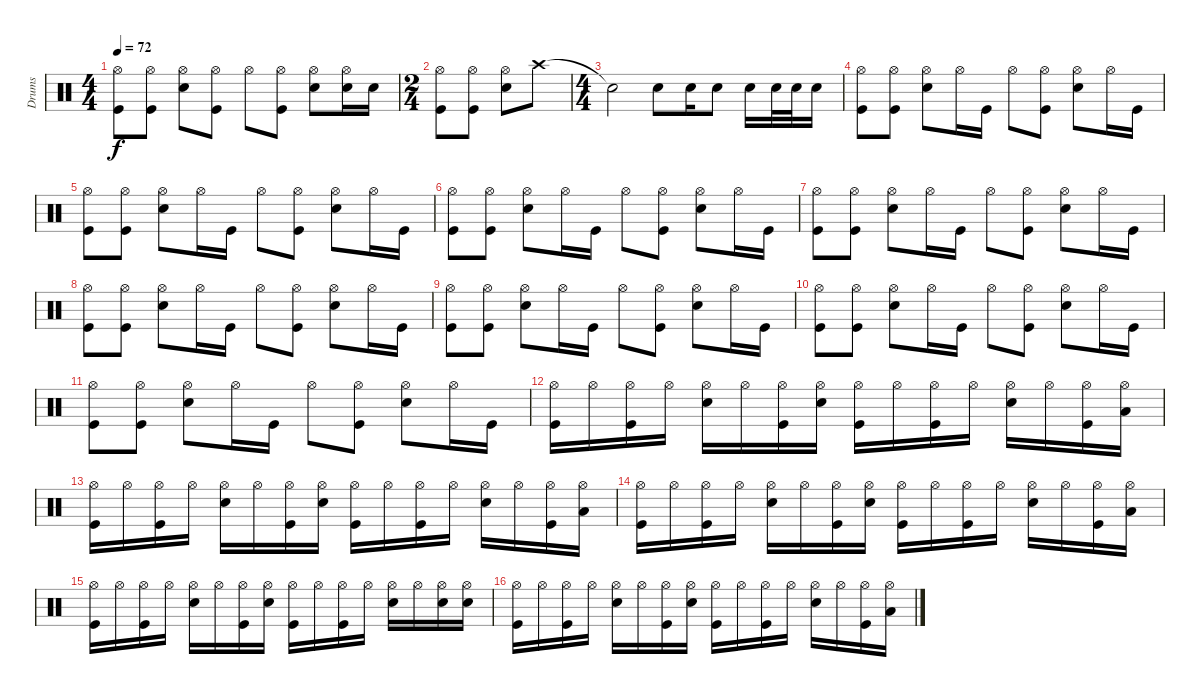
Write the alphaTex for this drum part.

\track ("Drums" "Drums") {instrument percussion}
\staff {score}
\articulation defaults
\ts (4 4)
\tempo 72
\clef neutral
\ks c
("Kick (hit)" "Hi-Hat (open)").8{dy f} ("Kick (hit)" "Hi-Hat (open)").8 ("Snare (hit) 2" "Hi-Hat (open)").8 ("Kick (hit)" "Hi-Hat (open)").8 "Hi-Hat (open)".8 ("Kick (hit)" "Hi-Hat (open)").8 ("Hi-Hat (open)" "Snare (hit) 2").8 ("Hi-Hat (open)" "Snare (hit) 2").16 "Snare (hit) 2".16 |
\ts (2 4)
("Kick (hit)" "Hi-Hat (open)").8 ("Kick (hit)" "Hi-Hat (open)").8 ("Snare (hit) 2" "Hi-Hat (open)").8 "Crash high (hit)".8 |
\ts (4 4)
"Snare (hit)"{t}.2 "Snare (hit) 2".8 "Snare (hit) 2".16 "Snare (hit) 2".8 "Snare (hit) 2".16 "Snare (hit) 2".32 "Snare (hit) 2".32 "Snare (hit) 2".16 |
("Kick (hit)" "Hi-Hat (open)").8 ("Kick (hit)" "Hi-Hat (open)").8 ("Snare (hit) 2" "Hi-Hat (open)").8 "Hi-Hat (open)".16 "Kick (hit)".16 "Hi-Hat (open)".8 ("Hi-Hat (open)" "Kick (hit)").8 ("Snare (hit) 2" "Hi-Hat (open)").8 "Hi-Hat (open)".16 "Kick (hit)".16 |
("Kick (hit)" "Hi-Hat (open)").8 ("Kick (hit)" "Hi-Hat (open)").8 ("Snare (hit) 2" "Hi-Hat (open)").8 "Hi-Hat (open)".16 "Kick (hit)".16 "Hi-Hat (open)".8 ("Hi-Hat (open)" "Kick (hit)").8 ("Snare (hit) 2" "Hi-Hat (open)").8 "Hi-Hat (open)".16 "Kick (hit)".16 |
("Kick (hit)" "Hi-Hat (open)").8 ("Kick (hit)" "Hi-Hat (open)").8 ("Snare (hit) 2" "Hi-Hat (open)").8 "Hi-Hat (open)".16 "Kick (hit)".16 "Hi-Hat (open)".8 ("Hi-Hat (open)" "Kick (hit)").8 ("Snare (hit) 2" "Hi-Hat (open)").8 "Hi-Hat (open)".16 "Kick (hit)".16 |
("Kick (hit)" "Hi-Hat (open)").8 ("Kick (hit)" "Hi-Hat (open)").8 ("Snare (hit) 2" "Hi-Hat (open)").8 "Hi-Hat (open)".16 "Kick (hit)".16 "Hi-Hat (open)".8 ("Hi-Hat (open)" "Kick (hit)").8 ("Snare (hit) 2" "Hi-Hat (open)").8 "Hi-Hat (open)".16 "Kick (hit)".16 |
("Kick (hit)" "Hi-Hat (open)").8 ("Kick (hit)" "Hi-Hat (open)").8 ("Snare (hit) 2" "Hi-Hat (open)").8 "Hi-Hat (open)".16 "Kick (hit)".16 "Hi-Hat (open)".8 ("Hi-Hat (open)" "Kick (hit)").8 ("Snare (hit) 2" "Hi-Hat (open)").8 "Hi-Hat (open)".16 "Kick (hit)".16 |
("Kick (hit)" "Hi-Hat (open)").8 ("Kick (hit)" "Hi-Hat (open)").8 ("Snare (hit) 2" "Hi-Hat (open)").8 "Hi-Hat (open)".16 "Kick (hit)".16 "Hi-Hat (open)".8 ("Hi-Hat (open)" "Kick (hit)").8 ("Snare (hit) 2" "Hi-Hat (open)").8 "Hi-Hat (open)".16 "Kick (hit)".16 |
("Kick (hit)" "Hi-Hat (open)").8 ("Kick (hit)" "Hi-Hat (open)").8 ("Snare (hit) 2" "Hi-Hat (open)").8 "Hi-Hat (open)".16 "Kick (hit)".16 "Hi-Hat (open)".8 ("Hi-Hat (open)" "Kick (hit)").8 ("Snare (hit) 2" "Hi-Hat (open)").8 "Hi-Hat (open)".16 "Kick (hit)".16 |
("Kick (hit)" "Hi-Hat (open)").8 ("Kick (hit)" "Hi-Hat (open)").8 ("Snare (hit) 2" "Hi-Hat (open)").8 "Hi-Hat (open)".16 "Kick (hit)".16 "Hi-Hat (open)".8 ("Hi-Hat (open)" "Kick (hit)").8 ("Snare (hit) 2" "Hi-Hat (open)").8 "Hi-Hat (open)".16 "Kick (hit)".16 |
("Kick (hit)" "Hi-Hat (open)").16 "Hi-Hat (open)".16 ("Kick (hit)" "Hi-Hat (open)").16 "Hi-Hat (open)".16 ("Snare (hit) 2" "Hi-Hat (open)").16 "Hi-Hat (open)".16 ("Kick (hit)" "Hi-Hat (open)").16 ("Snare (hit) 2" "Hi-Hat (open)").16 ("Hi-Hat (open)" "Kick (hit)").16 "Hi-Hat (open)".16 ("Kick (hit)" "Hi-Hat (open)").16 "Hi-Hat (open)".16 ("Snare (hit) 2" "Hi-Hat (open)").16 "Hi-Hat (open)".16 ("Kick (hit)" "Hi-Hat (open)").16 ("Low Tom (hit)" "Hi-Hat (open)").16 |
("Kick (hit)" "Hi-Hat (open)").16 "Hi-Hat (open)".16 ("Kick (hit)" "Hi-Hat (open)").16 "Hi-Hat (open)".16 ("Snare (hit) 2" "Hi-Hat (open)").16 "Hi-Hat (open)".16 ("Kick (hit)" "Hi-Hat (open)").16 ("Snare (hit) 2" "Hi-Hat (open)").16 ("Kick (hit)" "Hi-Hat (open)").16 "Hi-Hat (open)".16 ("Kick (hit)" "Hi-Hat (open)").16 "Hi-Hat (open)".16 ("Snare (hit) 2" "Hi-Hat (open)").16 "Hi-Hat (open)".16 ("Kick (hit)" "Hi-Hat (open)").16 ("Low Tom (hit)" "Hi-Hat (open)").16 |
("Kick (hit)" "Hi-Hat (open)").16 "Hi-Hat (open)".16 ("Kick (hit)" "Hi-Hat (open)").16 "Hi-Hat (open)".16 ("Snare (hit) 2" "Hi-Hat (open)").16 "Hi-Hat (open)".16 ("Hi-Hat (open)" "Kick (hit)").16 ("Snare (hit) 2" "Hi-Hat (open)").16 ("Kick (hit)" "Hi-Hat (open)").16 "Hi-Hat (open)".16 ("Kick (hit)" "Hi-Hat (open)").16 "Hi-Hat (open)".16 ("Snare (hit) 2" "Hi-Hat (open)").16 "Hi-Hat (open)".16 ("Kick (hit)" "Hi-Hat (open)").16 ("Low Tom (hit)" "Hi-Hat (open)").16 |
("Kick (hit)" "Hi-Hat (open)").16 "Hi-Hat (open)".16 ("Kick (hit)" "Hi-Hat (open)").16 "Hi-Hat (open)".16 ("Snare (hit) 2" "Hi-Hat (open)").16 "Hi-Hat (open)".16 ("Hi-Hat (open)" "Kick (hit)").16 ("Snare (hit) 2" "Hi-Hat (open)").16 ("Kick (hit)" "Hi-Hat (open)").16 "Hi-Hat (open)".16 ("Kick (hit)" "Hi-Hat (open)").16 "Hi-Hat (open)".16 ("Snare (hit) 2" "Hi-Hat (open)").16 "Hi-Hat (open)".16 ("Hi-Hat (open)" "Snare (hit) 2").16 ("Snare (hit) 2" "Hi-Hat (open)").16 |
("Kick (hit)" "Hi-Hat (open)").16 "Hi-Hat (open)".16 ("Kick (hit)" "Hi-Hat (open)").16 "Hi-Hat (open)".16 ("Snare (hit) 2" "Hi-Hat (open)").16 "Hi-Hat (open)".16 ("Kick (hit)" "Hi-Hat (open)").16 ("Snare (hit) 2" "Hi-Hat (open)").16 ("Hi-Hat (open)" "Kick (hit)").16 "Hi-Hat (open)".16 ("Kick (hit)" "Hi-Hat (open)").16 "Hi-Hat (open)".16 ("Snare (hit) 2" "Hi-Hat (open)").16 "Hi-Hat (open)".16 ("Kick (hit)" "Hi-Hat (open)").16 ("Low Tom (hit)" "Hi-Hat (open)").16
